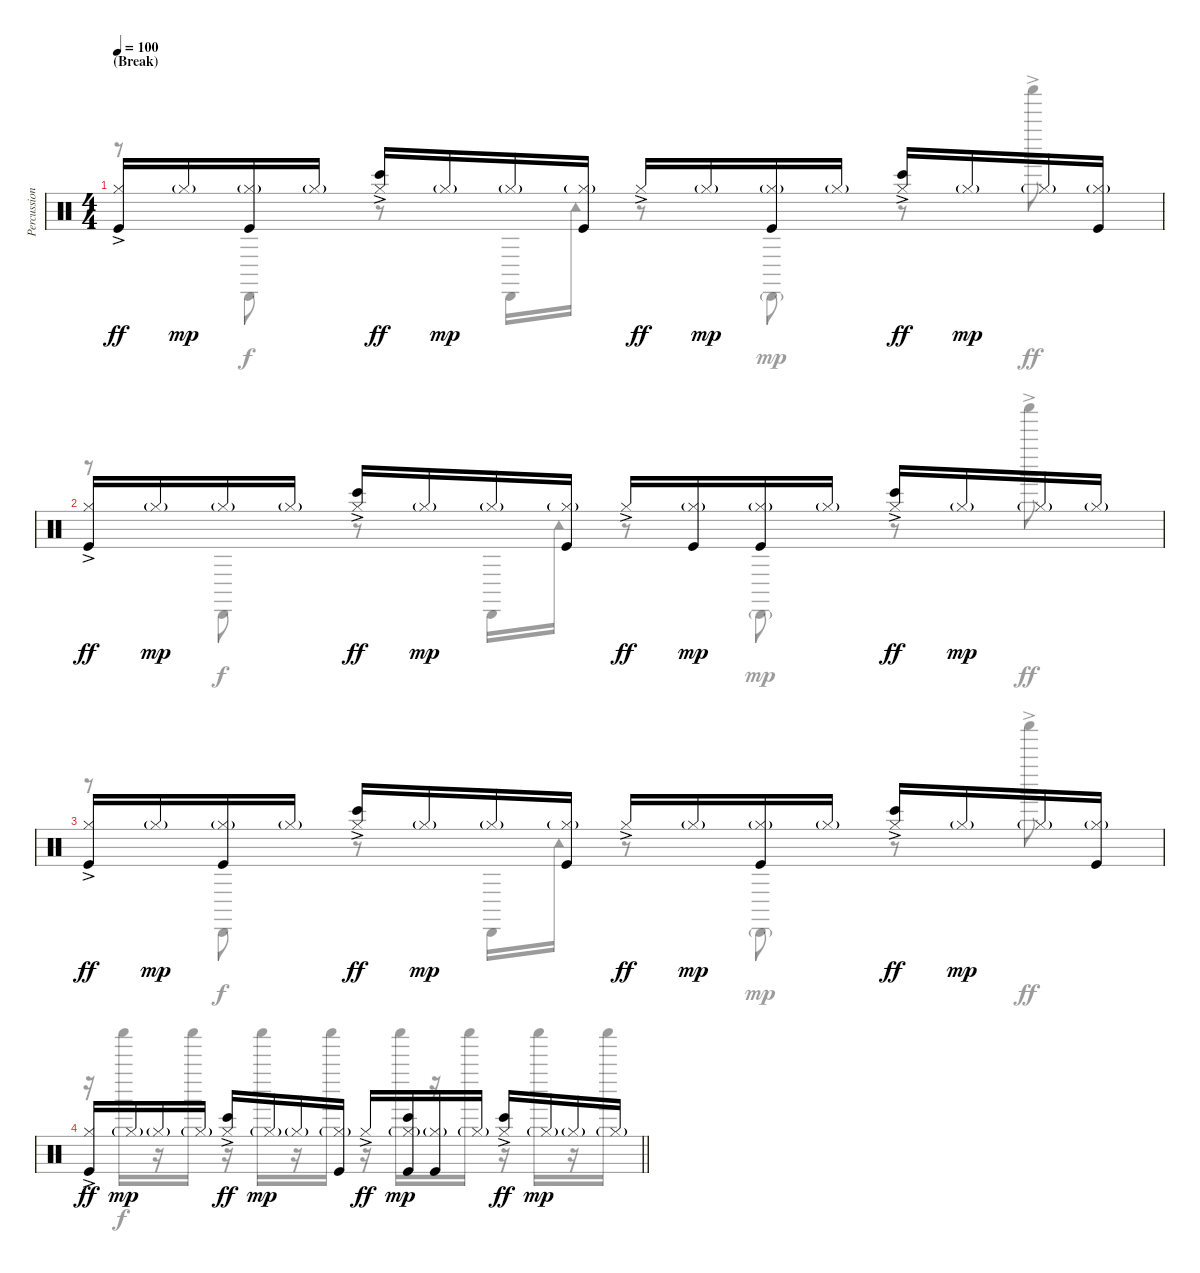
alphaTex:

\track ("Percussions" "Percussion") {instrument percussion}
\staff {score}
\articulation defaults
\voice
\ts (4 4)
\section ("" "(Break)")
\tempo 100
\clef neutral
\ks c
("Kick (hit)" "Hi-Hat (closed)"{ac}).16{dy ff} "Hi-Hat (closed)"{g}.16{dy mp} ("Kick (hit)" "Hi-Hat (closed)"{g}).16 "Hi-Hat (closed)"{g}.16 ("Bongo High (hit)" "Hi-Hat (closed)"{ac}).16{dy ff} "Hi-Hat (closed)"{g}.16{dy mp} "Hi-Hat (closed)"{g}.16 ("Kick (hit)" "Hi-Hat (closed)"{g}).16 "Hi-Hat (closed)"{ac}.16{dy ff} "Hi-Hat (closed)"{g}.16{dy mp} ("Kick (hit)" "Hi-Hat (closed)"{g}).16 "Hi-Hat (closed)"{g}.16 ("Bongo High (hit)" "Hi-Hat (closed)"{ac}).16{dy ff} "Hi-Hat (closed)"{g}.16{dy mp} "Hi-Hat (closed)"{g}.16 ("Kick (hit)" "Hi-Hat (closed)"{g}).16 |
("Kick (hit)" "Hi-Hat (closed)"{ac}).16{dy ff} "Hi-Hat (closed)"{g}.16{dy mp} "Hi-Hat (closed)"{g}.16 "Hi-Hat (closed)"{g}.16 ("Bongo High (hit)" "Hi-Hat (closed)"{ac}).16{dy ff} "Hi-Hat (closed)"{g}.16{dy mp} "Hi-Hat (closed)"{g}.16 ("Kick (hit)" "Hi-Hat (closed)"{g}).16 "Hi-Hat (closed)"{ac}.16{dy ff} ("Kick (hit)" "Hi-Hat (closed)"{g}).16{dy mp} ("Kick (hit)" "Hi-Hat (closed)"{g}).16 "Hi-Hat (closed)"{g}.16 ("Bongo High (hit)" "Hi-Hat (closed)"{ac}).16{dy ff} "Hi-Hat (closed)"{g}.16{dy mp} "Hi-Hat (closed)"{g}.16 "Hi-Hat (closed)"{g}.16 |
("Kick (hit)" "Hi-Hat (closed)"{ac}).16{dy ff} "Hi-Hat (closed)"{g}.16{dy mp} ("Kick (hit)" "Hi-Hat (closed)"{g}).16 "Hi-Hat (closed)"{g}.16 ("Bongo High (hit)" "Hi-Hat (closed)"{ac}).16{dy ff} "Hi-Hat (closed)"{g}.16{dy mp} "Hi-Hat (closed)"{g}.16 ("Kick (hit)" "Hi-Hat (closed)"{g}).16 "Hi-Hat (closed)"{ac}.16{dy ff} "Hi-Hat (closed)"{g}.16{dy mp} ("Kick (hit)" "Hi-Hat (closed)"{g}).16 "Hi-Hat (closed)"{g}.16 ("Bongo High (hit)" "Hi-Hat (closed)"{ac}).16{dy ff} "Hi-Hat (closed)"{g}.16{dy mp} "Hi-Hat (closed)"{g}.16 ("Kick (hit)" "Hi-Hat (closed)"{g}).16 |
\barLineRight lightlight
("Kick (hit)" "Hi-Hat (closed)"{ac}).16{dy ff} "Hi-Hat (closed)"{g}.16{dy mp} "Hi-Hat (closed)"{g}.16 "Hi-Hat (closed)"{g}.16 ("Bongo High (hit)" "Hi-Hat (closed)"{ac}).16{dy ff} "Hi-Hat (closed)"{g}.16{dy mp} "Hi-Hat (closed)"{g}.16 ("Kick (hit)" "Hi-Hat (closed)"{g}).16 "Hi-Hat (closed)"{ac}.16{dy ff} ("Kick (hit)" "Bongo High (hit)" "Hi-Hat (closed)"{g}).16{dy mp} ("Kick (hit)" "Hi-Hat (closed)"{g}).16 "Hi-Hat (closed)"{g}.16 ("Bongo High (hit)" "Hi-Hat (closed)"{ac}).16{dy ff} "Hi-Hat (closed)"{g}.16{dy mp} "Hi-Hat (closed)"{g}.16 "Hi-Hat (closed)"{g}.16
\voice
\clef neutral
\ottava regular
\simile none
\ks c
r.8{dy ff} "Cabasa (hit)".8{dy f} r.8 "Cabasa (hit)".16 "Tambourine (hit)".16 r.8 "Cabasa (hit)"{g}.8{dy mp} r.8 "Shaker (hit)"{ac}.8{dy ff} |
r.8 "Cabasa (hit)".8{dy f} r.8 "Cabasa (hit)".16 "Tambourine (hit)".16 r.8 "Cabasa (hit)"{g}.8{dy mp} r.8 "Shaker (hit)"{ac}.8{dy ff} |
r.8 "Cabasa (hit)".8{dy f} r.8 "Cabasa (hit)".16 "Tambourine (hit)".16 r.8 "Cabasa (hit)"{g}.8{dy mp} r.8 "Shaker (hit)"{ac}.8{dy ff} |
\barLineRight lightlight
r.16 "Shaker (hit)".16{dy f} r.16 "Shaker (hit)".16 r.16 "Shaker (hit)".16 r.16 "Shaker (hit)".16 r.16 "Shaker (hit)".16 r.16 "Shaker (hit)".16 r.16 "Shaker (hit)".16 r.16 "Shaker (hit)".16
